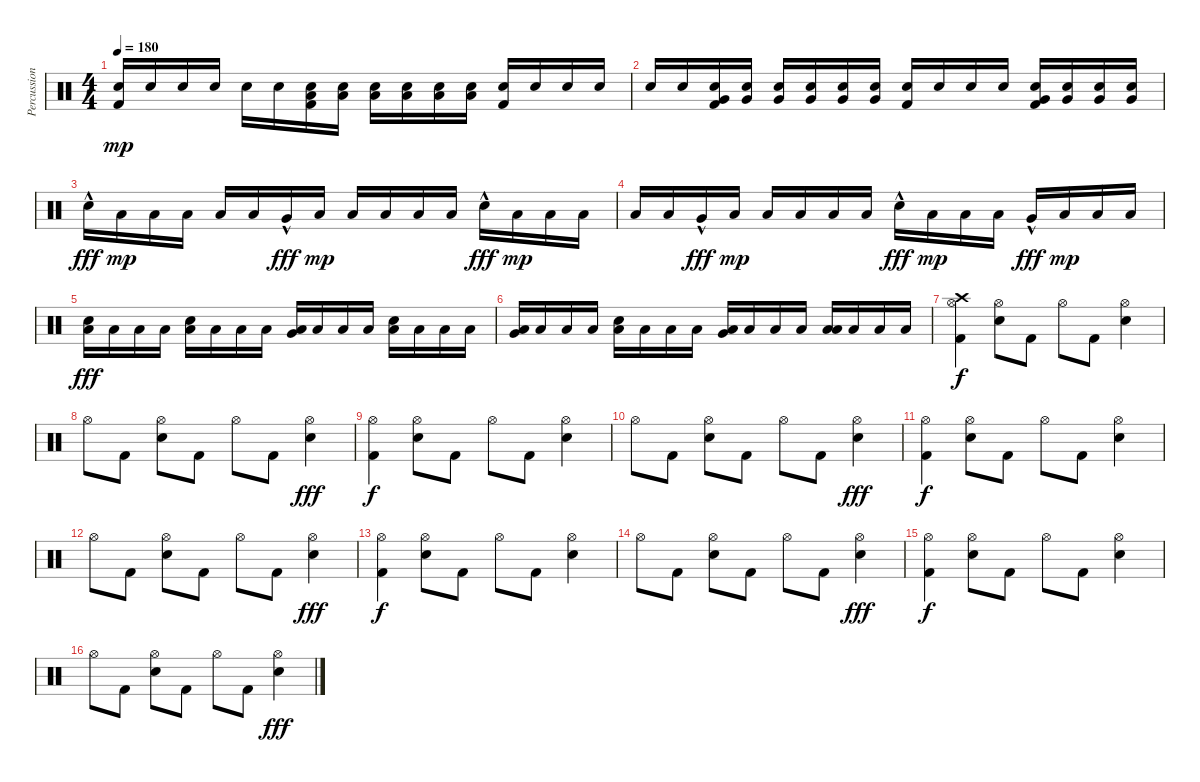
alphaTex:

\track ("Percussion" "Percussion") {instrument percussion}
\staff {score}
\articulation defaults
\ts (4 4)
\tempo 180
\clef neutral
\ks c
("Electric Snare (hit)" "Kick (hit) 2").16{dy mp} "Electric Snare (hit)".16 "Electric Snare (hit)".16 "Electric Snare (hit)".16 "Electric Snare (hit)".16 "Electric Snare (hit)".16 ("Electric Snare (hit)" "Low Tom (hit)" "Kick (hit) 2").16 ("Electric Snare (hit)" "Low Tom (hit)").16 ("Electric Snare (hit)" "Low Tom (hit)").16 ("Electric Snare (hit)" "Low Tom (hit)").16 ("Electric Snare (hit)" "Low Tom (hit)").16 ("Electric Snare (hit)" "Low Tom (hit)").16 ("Electric Snare (hit)" "Kick (hit) 2").16 "Electric Snare (hit)".16 "Electric Snare (hit)".16 "Electric Snare (hit)".16 |
"Electric Snare (hit)".16 "Electric Snare (hit)".16 ("Electric Snare (hit)" "Very Low Tom (hit)" "Kick (hit) 2").16 ("Electric Snare (hit)" "Very Low Tom (hit)").16 ("Electric Snare (hit)" "Very Low Tom (hit)").16 ("Electric Snare (hit)" "Very Low Tom (hit)").16 ("Electric Snare (hit)" "Very Low Tom (hit)").16 ("Electric Snare (hit)" "Very Low Tom (hit)").16 ("Electric Snare (hit)" "Kick (hit) 2").16 "Electric Snare (hit)".16 "Electric Snare (hit)".16 "Electric Snare (hit)".16 ("Electric Snare (hit)" "Very Low Tom (hit)" "Kick (hit) 2").16 ("Electric Snare (hit)" "Very Low Tom (hit)").16 ("Electric Snare (hit)" "Very Low Tom (hit)").16 ("Electric Snare (hit)" "Very Low Tom (hit)").16 |
"Electric Snare (hit)"{hac}.16{dy fff} "Low Tom (hit)".16{dy mp} "Low Tom (hit)".16 "Low Tom (hit)".16 "Low Tom (hit)".16 "Low Tom (hit)".16 "Very Low Tom (hit)"{hac}.16{dy fff} "Low Tom (hit)".16{dy mp} "Low Tom (hit)".16 "Low Tom (hit)".16 "Low Tom (hit)".16 "Low Tom (hit)".16 "Electric Snare (hit)"{hac}.16{dy fff} "Low Tom (hit)".16{dy mp} "Low Tom (hit)".16 "Low Tom (hit)".16 |
"Low Tom (hit)".16 "Low Tom (hit)".16 "Very Low Tom (hit)"{hac}.16{dy fff} "Low Tom (hit)".16{dy mp} "Low Tom (hit)".16 "Low Tom (hit)".16 "Low Tom (hit)".16 "Low Tom (hit)".16 "Electric Snare (hit)"{hac}.16{dy fff} "Low Tom (hit)".16{dy mp} "Low Tom (hit)".16 "Low Tom (hit)".16 "Very Low Tom (hit)"{hac}.16{dy fff} "Low Tom (hit)".16{dy mp} "Low Tom (hit)".16 "Low Tom (hit)".16 |
("Electric Snare (hit)" "Low Tom (hit)").16{dy fff} "Low Tom (hit)".16 "Low Tom (hit)".16 "Low Tom (hit)".16 ("Electric Snare (hit)" "Low Tom (hit)").16 "Low Tom (hit)".16 "Low Tom (hit)".16 "Low Tom (hit)".16 ("Very Low Tom (hit)" "Low Tom (hit)").16 "Low Tom (hit)".16 "Low Tom (hit)".16 "Low Tom (hit)".16 ("Electric Snare (hit)" "Low Tom (hit)").16 "Low Tom (hit)".16 "Low Tom (hit)".16 "Low Tom (hit)".16 |
("Very Low Tom (hit)" "Low Tom (hit)").16 "Low Tom (hit)".16 "Low Tom (hit)".16 "Low Tom (hit)".16 ("Electric Snare (hit)" "Low Tom (hit)").16 "Low Tom (hit)".16 "Low Tom (hit)".16 "Low Tom (hit)".16 ("Very Low Tom (hit)" "Low Tom (hit)").16 "Low Tom (hit)".16 "Low Tom (hit)".16 "Low Tom (hit)".16 ("Low Floor Tom (hit)" "Low Tom (hit)").16 "Low Tom (hit)".16 "Low Tom (hit)".16 "Low Tom (hit)".16 |
("Hi-Hat (open)" "Crash high (hit)" "Kick (hit) 2").4{dy f} ("Hi-Hat (open)" "Electric Snare (hit)").8 "Kick (hit) 2".8 "Hi-Hat (open)".8 "Kick (hit) 2".8 ("Hi-Hat (open)" "Electric Snare (hit)").4 |
"Hi-Hat (open)".8 "Kick (hit) 2".8 ("Hi-Hat (open)" "Electric Snare (hit)").8 "Kick (hit) 2".8 "Hi-Hat (open)".8 "Kick (hit) 2".8 ("Hi-Hat (open)" "Electric Snare (hit)").4{dy fff} |
("Hi-Hat (open)" "Kick (hit) 2").4{dy f} ("Hi-Hat (open)" "Electric Snare (hit)").8 "Kick (hit) 2".8 "Hi-Hat (open)".8 "Kick (hit) 2".8 ("Hi-Hat (open)" "Electric Snare (hit)").4 |
"Hi-Hat (open)".8 "Kick (hit) 2".8 ("Hi-Hat (open)" "Electric Snare (hit)").8 "Kick (hit) 2".8 "Hi-Hat (open)".8 "Kick (hit) 2".8 ("Hi-Hat (open)" "Electric Snare (hit)").4{dy fff} |
("Hi-Hat (open)" "Kick (hit) 2").4{dy f} ("Hi-Hat (open)" "Electric Snare (hit)").8 "Kick (hit) 2".8 "Hi-Hat (open)".8 "Kick (hit) 2".8 ("Hi-Hat (open)" "Electric Snare (hit)").4 |
"Hi-Hat (open)".8 "Kick (hit) 2".8 ("Hi-Hat (open)" "Electric Snare (hit)").8 "Kick (hit) 2".8 "Hi-Hat (open)".8 "Kick (hit) 2".8 ("Hi-Hat (open)" "Electric Snare (hit)").4{dy fff} |
("Hi-Hat (open)" "Kick (hit) 2").4{dy f} ("Hi-Hat (open)" "Electric Snare (hit)").8 "Kick (hit) 2".8 "Hi-Hat (open)".8 "Kick (hit) 2".8 ("Hi-Hat (open)" "Electric Snare (hit)").4 |
"Hi-Hat (open)".8 "Kick (hit) 2".8 ("Hi-Hat (open)" "Electric Snare (hit)").8 "Kick (hit) 2".8 "Hi-Hat (open)".8 "Kick (hit) 2".8 ("Hi-Hat (open)" "Electric Snare (hit)").4{dy fff} |
("Hi-Hat (open)" "Kick (hit) 2").4{dy f} ("Hi-Hat (open)" "Electric Snare (hit)").8 "Kick (hit) 2".8 "Hi-Hat (open)".8 "Kick (hit) 2".8 ("Hi-Hat (open)" "Electric Snare (hit)").4 |
"Hi-Hat (open)".8 "Kick (hit) 2".8 ("Hi-Hat (open)" "Electric Snare (hit)").8 "Kick (hit) 2".8 "Hi-Hat (open)".8 "Kick (hit) 2".8 ("Hi-Hat (open)" "Electric Snare (hit)").4{dy fff}
